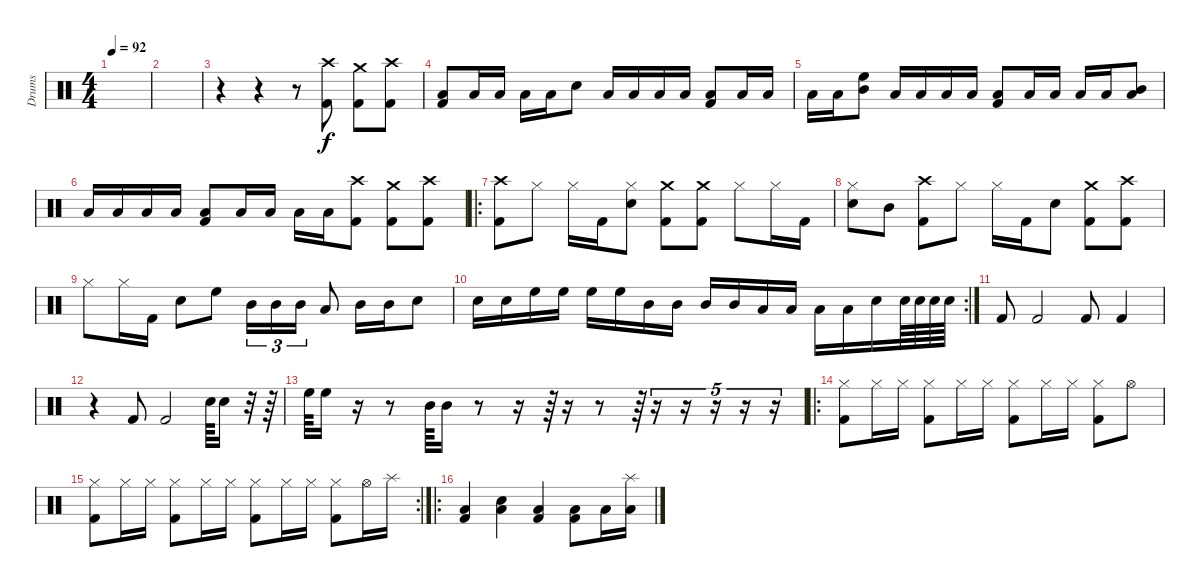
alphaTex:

\track ("Drums" "Drums") {instrument percussion}
\staff {score}
\articulation defaults
\ts (4 4)
\tempo 92
\clef neutral
\ks c
|
|
r.4 r.4 r.8 ("Crash high (hit)" "Kick (hit) 2").8 ("Crash medium (hit)" "Kick (hit) 2").8 ("Crash high (hit)" "Kick (hit) 2").8 |
("Low Tom (hit)" "Kick (hit) 2").8 "Low Tom (hit)".16 "Low Tom (hit)".16 "Low Tom (hit)".16 "Low Tom (hit)".16 "Snare (hit) 2".8 "Low Tom (hit)".16 "Low Tom (hit)".16 "Low Tom (hit)".16 "Low Tom (hit)".16 ("Low Tom (hit)" "Kick (hit) 2").8 "Low Tom (hit)".16 "Low Tom (hit)".16 |
"Low Tom (hit)".16 "Low Tom (hit)".16 ("High Floor Tom (hit)" "Mid Tom (hit)").8 "Low Tom (hit)".16 "Low Tom (hit)".16 "Low Tom (hit)".16 "Low Tom (hit)".16 ("Low Tom (hit)" "Kick (hit) 2").8 "Low Tom (hit)".16 "Low Tom (hit)".16 "Low Tom (hit)".16 "Low Tom (hit)".16 ("Mid Tom (hit)" "Low Tom (hit)").8 |
"Low Tom (hit)".16 "Low Tom (hit)".16 "Low Tom (hit)".16 "Low Tom (hit)".16 ("Low Tom (hit)" "Kick (hit) 2").8 "Low Tom (hit)".16 "Low Tom (hit)".16 "Low Tom (hit)".16 "Low Tom (hit)".16 ("Crash high (hit)" "Kick (hit) 2").8 ("Crash medium (hit)" "Kick (hit) 2").8 ("Crash high (hit)" "Kick (hit) 2").8 |
\ro
("Crash high (hit)" "Kick (hit) 2").8 "Hi-Hat (closed)".8 "Hi-Hat (closed)".16 "Kick (hit) 2".16 ("Hi-Hat (closed)" "Snare (hit) 2").8 ("Kick (hit) 2" "Crash medium (hit)").8 ("Kick (hit) 2" "Crash medium (hit)").8 "Hi-Hat (closed)".8 "Hi-Hat (closed)".16 "Kick (hit) 2".16 |
("Snare (hit) 2" "Hi-Hat (closed)").8 "Mid Tom (hit)".8 ("Crash high (hit)" "Kick (hit) 2").8 "Hi-Hat (closed)".8 "Hi-Hat (closed)".16 "Kick (hit) 2".16 "Snare (hit) 2".8 ("Crash medium (hit)" "Kick (hit) 2").8 ("Crash high (hit)" "Kick (hit) 2").8 |
"Hi-Hat (closed)".8 "Hi-Hat (closed)".16 "Kick (hit) 2".16 "Snare (hit) 2".8 "High Floor Tom (hit)".8 "Mid Tom (hit)".16{tu (3 2)} "Mid Tom (hit)".16{tu (3 2)} "Mid Tom (hit)".16{tu (3 2)} "Low Tom (hit)".8 "Mid Tom (hit)".16 "Mid Tom (hit)".16 "Snare (hit) 2".8 |
\rc 2 "Snare (hit) 2".16 "Snare (hit) 2".16 "High Floor Tom (hit)".16 "High Floor Tom (hit)".16 "High Floor Tom (hit)".16 "High Floor Tom (hit)".16 "Mid Tom (hit)".16 "Mid Tom (hit)".16 "Mid Tom (hit)".16 "Mid Tom (hit)".16 "Low Tom (hit)".16 "Low Tom (hit)".16 "Low Tom (hit)".16 "Low Tom (hit)".16 "Snare (hit) 2".16 "Snare (hit) 2".64 "Snare (hit) 2".64 "Snare (hit) 2".64 "Snare (hit) 2".64
|
"Kick (hit) 2".8 "Kick (hit) 2".2 "Kick (hit) 2".8 "Kick (hit) 2".4 |
r.4 "Kick (hit) 2".8 "Kick (hit) 2".2 "Snare (hit) 2".64 "Snare (hit) 2".16 r.32 r.64 |
"High Floor Tom (hit)".64 "High Floor Tom (hit)".16 r.16 r.8 "Mid Tom (hit)".64 "Mid Tom (hit)".16 r.8 r.16 r.64 r.16 r.8 r.64 r.16{tu (5 4)} r.16{tu (5 4)} r.16{tu (5 4)} r.16{tu (5 4)} r.16{tu (5 4)} |
\ro
("Hi-Hat (closed)" "Kick (hit) 2").8 "Hi-Hat (closed)".16 "Hi-Hat (closed)".16 ("Hi-Hat (closed)" "Kick (hit) 2").8 "Hi-Hat (closed)".16 "Hi-Hat (closed)".16 ("Hi-Hat (closed)" "Kick (hit) 2").8 "Hi-Hat (closed)".16 "Hi-Hat (closed)".16 ("Hi-Hat (closed)" "Kick (hit) 2").8 "Hi-Hat (open)".8 |
\rc 2
("Hi-Hat (closed)" "Kick (hit) 2").8 "Hi-Hat (closed)".16 "Hi-Hat (closed)".16 ("Hi-Hat (closed)" "Kick (hit) 2").8 "Hi-Hat (closed)".16 "Hi-Hat (closed)".16 ("Hi-Hat (closed)" "Kick (hit) 2").8 "Hi-Hat (closed)".16 "Hi-Hat (closed)".16 ("Hi-Hat (closed)" "Kick (hit) 2").8 "Hi-Hat (open)".16 "Splash (hit)".16 |
\ro
("Low Tom (hit)" "Kick (hit) 2").4 ("Low Tom (hit)" "Snare (hit) 2").4 ("Low Tom (hit)" "Kick (hit) 2").4 ("Low Tom (hit)" "Kick (hit) 2").8 "Low Tom (hit)".16 ("Splash (hit)" "Low Tom (hit)").16
